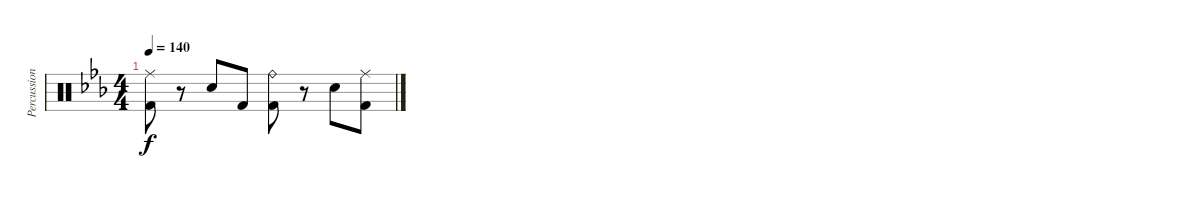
\track ("Percussions" "Percussion") {instrument percussion}
\staff {score}
\articulation defaults
\ts (4 4)
\tempo 140
\clef neutral
\ks eb
("Ride (middle)" "Kick (hit) 2").8{dy f} r.8 "Snare (hit) 2".8 "Kick (hit) 2".8 ("Ride (bell)" "Kick (hit) 2").8 r.8 "Snare (hit) 2".8 ("Ride (middle)" "Kick (hit) 2").8
